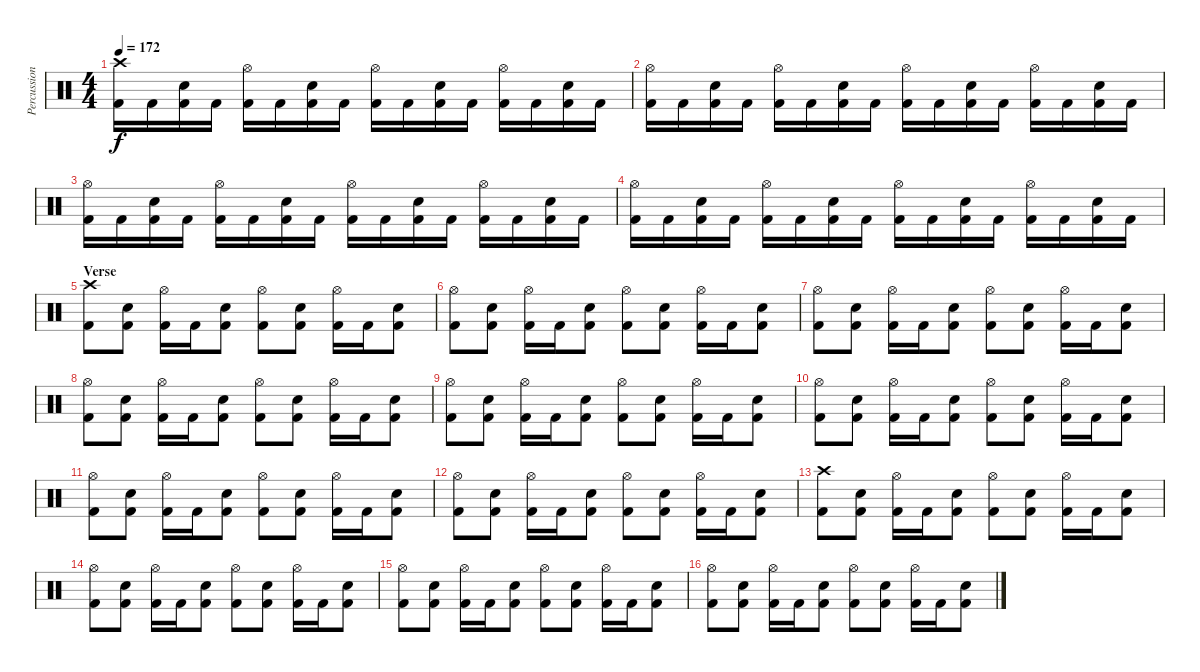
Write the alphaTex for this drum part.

\track ("Percussion" "Percussion") {instrument percussion}
\staff {score}
\articulation defaults
\ts (4 4)
\tempo 172
\clef neutral
\ks c
("Crash high (hit)" "Kick (hit) 2").16{dy f} "Kick (hit) 2".16 ("Electric Snare (hit)" "Kick (hit) 2").16 "Kick (hit) 2".16 ("Hi-Hat (open)" "Kick (hit) 2").16 "Kick (hit) 2".16 ("Electric Snare (hit)" "Kick (hit) 2").16 "Kick (hit) 2".16 ("Hi-Hat (open)" "Kick (hit) 2").16 "Kick (hit) 2".16 ("Electric Snare (hit)" "Kick (hit) 2").16 "Kick (hit) 2".16 ("Hi-Hat (open)" "Kick (hit) 2").16 "Kick (hit) 2".16 ("Electric Snare (hit)" "Kick (hit) 2").16 "Kick (hit) 2".16 |
("Hi-Hat (open)" "Kick (hit) 2").16 "Kick (hit) 2".16 ("Electric Snare (hit)" "Kick (hit) 2").16 "Kick (hit) 2".16 ("Hi-Hat (open)" "Kick (hit) 2").16 "Kick (hit) 2".16 ("Electric Snare (hit)" "Kick (hit) 2").16 "Kick (hit) 2".16 ("Hi-Hat (open)" "Kick (hit) 2").16 "Kick (hit) 2".16 ("Electric Snare (hit)" "Kick (hit) 2").16 "Kick (hit) 2".16 ("Hi-Hat (open)" "Kick (hit) 2").16 "Kick (hit) 2".16 ("Electric Snare (hit)" "Kick (hit) 2").16 "Kick (hit) 2".16 |
("Hi-Hat (open)" "Kick (hit) 2").16 "Kick (hit) 2".16 ("Electric Snare (hit)" "Kick (hit) 2").16 "Kick (hit) 2".16 ("Hi-Hat (open)" "Kick (hit) 2").16 "Kick (hit) 2".16 ("Electric Snare (hit)" "Kick (hit) 2").16 "Kick (hit) 2".16 ("Hi-Hat (open)" "Kick (hit) 2").16 "Kick (hit) 2".16 ("Electric Snare (hit)" "Kick (hit) 2").16 "Kick (hit) 2".16 ("Hi-Hat (open)" "Kick (hit) 2").16 "Kick (hit) 2".16 ("Electric Snare (hit)" "Kick (hit) 2").16 "Kick (hit) 2".16 |
("Hi-Hat (open)" "Kick (hit) 2").16 "Kick (hit) 2".16 ("Electric Snare (hit)" "Kick (hit) 2").16 "Kick (hit) 2".16 ("Hi-Hat (open)" "Kick (hit) 2").16 "Kick (hit) 2".16 ("Electric Snare (hit)" "Kick (hit) 2").16 "Kick (hit) 2".16 ("Hi-Hat (open)" "Kick (hit) 2").16 "Kick (hit) 2".16 ("Electric Snare (hit)" "Kick (hit) 2").16 "Kick (hit) 2".16 ("Hi-Hat (open)" "Kick (hit) 2").16 "Kick (hit) 2".16 ("Electric Snare (hit)" "Kick (hit) 2").16 "Kick (hit) 2".16 |
\section ("" "Verse")
("Crash high (hit)" "Kick (hit) 2").8 ("Electric Snare (hit)" "Kick (hit) 2").8 ("Hi-Hat (open)" "Kick (hit) 2").16 "Kick (hit) 2".16 ("Electric Snare (hit)" "Kick (hit) 2").8 ("Hi-Hat (open)" "Kick (hit) 2").8 ("Electric Snare (hit)" "Kick (hit) 2").8 ("Hi-Hat (open)" "Kick (hit) 2").16 "Kick (hit) 2".16 ("Electric Snare (hit)" "Kick (hit) 2").8 |
("Hi-Hat (open)" "Kick (hit) 2").8 ("Electric Snare (hit)" "Kick (hit) 2").8 ("Hi-Hat (open)" "Kick (hit) 2").16 "Kick (hit) 2".16 ("Electric Snare (hit)" "Kick (hit) 2").8 ("Hi-Hat (open)" "Kick (hit) 2").8 ("Electric Snare (hit)" "Kick (hit) 2").8 ("Hi-Hat (open)" "Kick (hit) 2").16 "Kick (hit) 2".16 ("Electric Snare (hit)" "Kick (hit) 2").8 |
("Hi-Hat (open)" "Kick (hit) 2").8 ("Electric Snare (hit)" "Kick (hit) 2").8 ("Hi-Hat (open)" "Kick (hit) 2").16 "Kick (hit) 2".16 ("Electric Snare (hit)" "Kick (hit) 2").8 ("Hi-Hat (open)" "Kick (hit) 2").8 ("Electric Snare (hit)" "Kick (hit) 2").8 ("Hi-Hat (open)" "Kick (hit) 2").16 "Kick (hit) 2".16 ("Electric Snare (hit)" "Kick (hit) 2").8 |
("Hi-Hat (open)" "Kick (hit) 2").8 ("Electric Snare (hit)" "Kick (hit) 2").8 ("Hi-Hat (open)" "Kick (hit) 2").16 "Kick (hit) 2".16 ("Electric Snare (hit)" "Kick (hit) 2").8 ("Hi-Hat (open)" "Kick (hit) 2").8 ("Electric Snare (hit)" "Kick (hit) 2").8 ("Hi-Hat (open)" "Kick (hit) 2").16 "Kick (hit) 2".16 ("Electric Snare (hit)" "Kick (hit) 2").8 |
("Hi-Hat (open)" "Kick (hit) 2").8 ("Electric Snare (hit)" "Kick (hit) 2").8 ("Hi-Hat (open)" "Kick (hit) 2").16 "Kick (hit) 2".16 ("Electric Snare (hit)" "Kick (hit) 2").8 ("Hi-Hat (open)" "Kick (hit) 2").8 ("Electric Snare (hit)" "Kick (hit) 2").8 ("Hi-Hat (open)" "Kick (hit) 2").16 "Kick (hit) 2".16 ("Electric Snare (hit)" "Kick (hit) 2").8 |
("Hi-Hat (open)" "Kick (hit) 2").8 ("Electric Snare (hit)" "Kick (hit) 2").8 ("Hi-Hat (open)" "Kick (hit) 2").16 "Kick (hit) 2".16 ("Electric Snare (hit)" "Kick (hit) 2").8 ("Hi-Hat (open)" "Kick (hit) 2").8 ("Electric Snare (hit)" "Kick (hit) 2").8 ("Hi-Hat (open)" "Kick (hit) 2").16 "Kick (hit) 2".16 ("Electric Snare (hit)" "Kick (hit) 2").8 |
("Hi-Hat (open)" "Kick (hit) 2").8 ("Electric Snare (hit)" "Kick (hit) 2").8 ("Hi-Hat (open)" "Kick (hit) 2").16 "Kick (hit) 2".16 ("Electric Snare (hit)" "Kick (hit) 2").8 ("Hi-Hat (open)" "Kick (hit) 2").8 ("Electric Snare (hit)" "Kick (hit) 2").8 ("Hi-Hat (open)" "Kick (hit) 2").16 "Kick (hit) 2".16 ("Electric Snare (hit)" "Kick (hit) 2").8 |
("Hi-Hat (open)" "Kick (hit) 2").8 ("Electric Snare (hit)" "Kick (hit) 2").8 ("Hi-Hat (open)" "Kick (hit) 2").16 "Kick (hit) 2".16 ("Electric Snare (hit)" "Kick (hit) 2").8 ("Hi-Hat (open)" "Kick (hit) 2").8 ("Electric Snare (hit)" "Kick (hit) 2").8 ("Hi-Hat (open)" "Kick (hit) 2").16 "Kick (hit) 2".16 ("Electric Snare (hit)" "Kick (hit) 2").8 |
("Crash high (hit)" "Kick (hit) 2").8 ("Electric Snare (hit)" "Kick (hit) 2").8 ("Hi-Hat (open)" "Kick (hit) 2").16 "Kick (hit) 2".16 ("Electric Snare (hit)" "Kick (hit) 2").8 ("Hi-Hat (open)" "Kick (hit) 2").8 ("Electric Snare (hit)" "Kick (hit) 2").8 ("Hi-Hat (open)" "Kick (hit) 2").16 "Kick (hit) 2".16 ("Electric Snare (hit)" "Kick (hit) 2").8 |
("Hi-Hat (open)" "Kick (hit) 2").8 ("Electric Snare (hit)" "Kick (hit) 2").8 ("Hi-Hat (open)" "Kick (hit) 2").16 "Kick (hit) 2".16 ("Electric Snare (hit)" "Kick (hit) 2").8 ("Hi-Hat (open)" "Kick (hit) 2").8 ("Electric Snare (hit)" "Kick (hit) 2").8 ("Hi-Hat (open)" "Kick (hit) 2").16 "Kick (hit) 2".16 ("Electric Snare (hit)" "Kick (hit) 2").8 |
("Hi-Hat (open)" "Kick (hit) 2").8 ("Electric Snare (hit)" "Kick (hit) 2").8 ("Hi-Hat (open)" "Kick (hit) 2").16 "Kick (hit) 2".16 ("Electric Snare (hit)" "Kick (hit) 2").8 ("Hi-Hat (open)" "Kick (hit) 2").8 ("Electric Snare (hit)" "Kick (hit) 2").8 ("Hi-Hat (open)" "Kick (hit) 2").16 "Kick (hit) 2".16 ("Electric Snare (hit)" "Kick (hit) 2").8 |
("Hi-Hat (open)" "Kick (hit) 2").8 ("Electric Snare (hit)" "Kick (hit) 2").8 ("Hi-Hat (open)" "Kick (hit) 2").16 "Kick (hit) 2".16 ("Electric Snare (hit)" "Kick (hit) 2").8 ("Hi-Hat (open)" "Kick (hit) 2").8 ("Electric Snare (hit)" "Kick (hit) 2").8 ("Hi-Hat (open)" "Kick (hit) 2").16 "Kick (hit) 2".16 ("Electric Snare (hit)" "Kick (hit) 2").8
